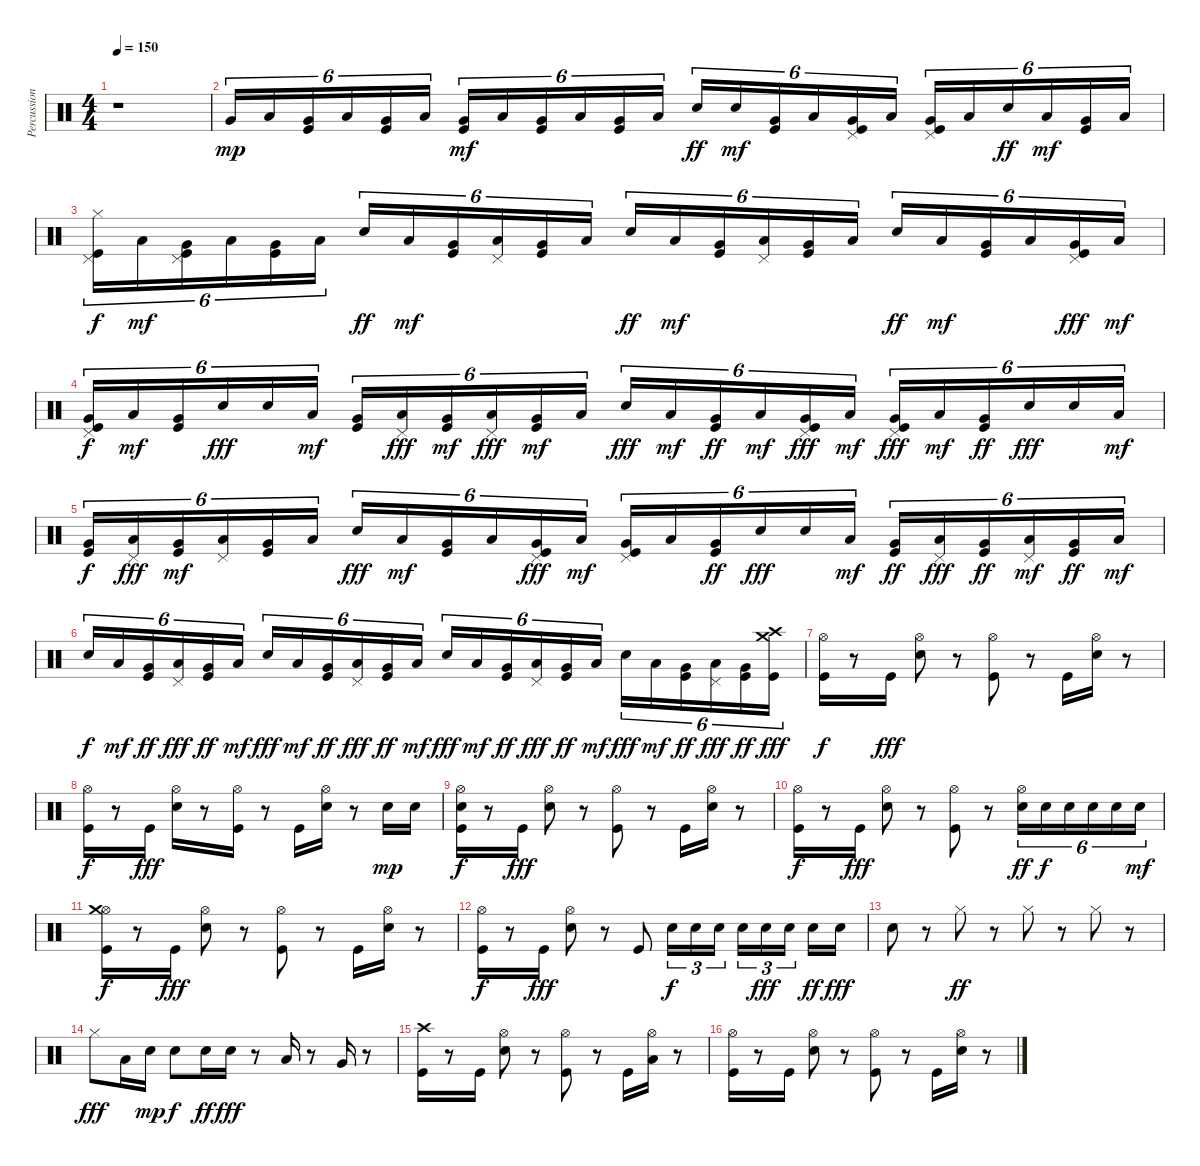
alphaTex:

\track ("Percussion" "Percussion") {instrument percussion}
\staff {score}
\articulation defaults
\ts (4 4)
\tempo 150
\clef neutral
\ks c
r.1{dy mp} |
"Very Low Tom (hit)".16{tu (6 4)} "Low Floor Tom (hit)".16{tu (6 4)} ("Kick (hit)" "Very Low Tom (hit)").16{tu (6 4)} "Low Floor Tom (hit)".16{tu (6 4)} ("Kick (hit)" "Very Low Tom (hit)").16{tu (6 4)} "Low Floor Tom (hit)".16{tu (6 4)} ("Very Low Tom (hit)" "Kick (hit)").16{tu (6 4) dy mf} "Low Floor Tom (hit)".16{tu (6 4)} ("Kick (hit)" "Very Low Tom (hit)").16{tu (6 4)} "Low Floor Tom (hit)".16{tu (6 4)} ("Kick (hit)" "Very Low Tom (hit)").16{tu (6 4)} "Low Floor Tom (hit)".16{tu (6 4)} "Electric Snare (hit)".16{tu (6 4) dy ff} "Electric Snare (hit)".16{tu (6 4) dy mf} ("Kick (hit)" "Very Low Tom (hit)").16{tu (6 4)} "Low Floor Tom (hit)".16{tu (6 4)} ("Pedal Hi-Hat (hit)" "Very Low Tom (hit)" "Kick (hit)").16{tu (6 4)} "Low Floor Tom (hit)".16{tu (6 4)} ("Pedal Hi-Hat (hit)" "Kick (hit)" "Very Low Tom (hit)").16{tu (6 4)} "Low Floor Tom (hit)".16{tu (6 4)} "Electric Snare (hit)".16{tu (6 4) dy ff} "Low Floor Tom (hit)".16{tu (6 4) dy mf} ("Kick (hit)" "Very Low Tom (hit)").16{tu (6 4)} "Low Floor Tom (hit)".16{tu (6 4)} |
("Pedal Hi-Hat (hit)" "Kick (hit)" "Hi-Hat (closed)").16{tu (6 4) dy f} "Low Floor Tom (hit)".16{tu (6 4) dy mf} ("Pedal Hi-Hat (hit)" "Kick (hit)" "Very Low Tom (hit)").16{tu (6 4)} "Low Floor Tom (hit)".16{tu (6 4)} ("Kick (hit)" "Very Low Tom (hit)").16{tu (6 4)} "Low Floor Tom (hit)".16{tu (6 4)} "Electric Snare (hit)".16{tu (6 4) dy ff} "Low Floor Tom (hit)".16{tu (6 4) dy mf} ("Kick (hit)" "Very Low Tom (hit)").16{tu (6 4)} ("Pedal Hi-Hat (hit)" "Low Floor Tom (hit)").16{tu (6 4)} ("Kick (hit)" "Very Low Tom (hit)").16{tu (6 4)} "Low Floor Tom (hit)".16{tu (6 4)} "Electric Snare (hit)".16{tu (6 4) dy ff} "Low Floor Tom (hit)".16{tu (6 4) dy mf} ("Kick (hit)" "Very Low Tom (hit)").16{tu (6 4)} ("Pedal Hi-Hat (hit)" "Low Floor Tom (hit)").16{tu (6 4)} ("Kick (hit)" "Very Low Tom (hit)").16{tu (6 4)} "Low Floor Tom (hit)".16{tu (6 4)} "Electric Snare (hit)".16{tu (6 4) dy ff} "Low Floor Tom (hit)".16{tu (6 4) dy mf} ("Kick (hit)" "Very Low Tom (hit)").16{tu (6 4)} "Low Floor Tom (hit)".16{tu (6 4)} ("Kick (hit)" "Very Low Tom (hit)" "Pedal Hi-Hat (hit)").16{tu (6 4) dy fff} "Low Floor Tom (hit)".16{tu (6 4) dy mf} |
("Kick (hit)" "Very Low Tom (hit)" "Pedal Hi-Hat (hit)").16{tu (6 4) dy f} "Low Floor Tom (hit)".16{tu (6 4) dy mf} ("Kick (hit)" "Very Low Tom (hit)").16{tu (6 4)} "Electric Snare (hit)".16{tu (6 4) dy fff} "Electric Snare (hit)".16{tu (6 4)} "Low Floor Tom (hit)".16{tu (6 4) dy mf} ("Kick (hit)" "Very Low Tom (hit)").16{tu (6 4)} ("Low Floor Tom (hit)" "Pedal Hi-Hat (hit)").16{tu (6 4) dy fff} ("Kick (hit)" "Very Low Tom (hit)").16{tu (6 4) dy mf} ("Low Floor Tom (hit)" "Pedal Hi-Hat (hit)").16{tu (6 4) dy fff} ("Kick (hit)" "Very Low Tom (hit)").16{tu (6 4) dy mf} "Low Floor Tom (hit)".16{tu (6 4)} "Electric Snare (hit)".16{tu (6 4) dy fff} "Low Floor Tom (hit)".16{tu (6 4) dy mf} ("Very Low Tom (hit)" "Kick (hit)").16{tu (6 4) dy ff} "Low Floor Tom (hit)".16{tu (6 4) dy mf} ("Very Low Tom (hit)" "Kick (hit)" "Pedal Hi-Hat (hit)").16{tu (6 4) dy fff} "Low Floor Tom (hit)".16{tu (6 4) dy mf} ("Very Low Tom (hit)" "Kick (hit)" "Pedal Hi-Hat (hit)").16{tu (6 4) dy fff} "Low Floor Tom (hit)".16{tu (6 4) dy mf} ("Very Low Tom (hit)" "Kick (hit)").16{tu (6 4) dy ff} "Electric Snare (hit)".16{tu (6 4) dy fff} "Electric Snare (hit)".16{tu (6 4)} "Low Floor Tom (hit)".16{tu (6 4) dy mf} |
("Kick (hit)" "Very Low Tom (hit)").16{tu (6 4) dy f} ("Low Floor Tom (hit)" "Pedal Hi-Hat (hit)").16{tu (6 4) dy fff} ("Kick (hit)" "Very Low Tom (hit)").16{tu (6 4) dy mf} ("Pedal Hi-Hat (hit)" "Low Floor Tom (hit)").16{tu (6 4)} ("Kick (hit)" "Very Low Tom (hit)").16{tu (6 4)} "Low Floor Tom (hit)".16{tu (6 4)} "Electric Snare (hit)".16{tu (6 4) dy fff} "Low Floor Tom (hit)".16{tu (6 4) dy mf} ("Kick (hit)" "Very Low Tom (hit)").16{tu (6 4)} "Low Floor Tom (hit)".16{tu (6 4)} ("Kick (hit)" "Very Low Tom (hit)" "Pedal Hi-Hat (hit)").16{tu (6 4) dy fff} "Low Floor Tom (hit)".16{tu (6 4) dy mf} ("Pedal Hi-Hat (hit)" "Kick (hit)" "Very Low Tom (hit)").16{tu (6 4)} "Low Floor Tom (hit)".16{tu (6 4)} ("Very Low Tom (hit)" "Kick (hit)").16{tu (6 4) dy ff} "Electric Snare (hit)".16{tu (6 4) dy fff} "Electric Snare (hit)".16{tu (6 4)} "Low Floor Tom (hit)".16{tu (6 4) dy mf} ("Very Low Tom (hit)" "Kick (hit)").16{tu (6 4) dy ff} ("Low Floor Tom (hit)" "Pedal Hi-Hat (hit)").16{tu (6 4) dy fff} ("Very Low Tom (hit)" "Kick (hit)").16{tu (6 4) dy ff} ("Pedal Hi-Hat (hit)" "Low Floor Tom (hit)").16{tu (6 4) dy mf} ("Very Low Tom (hit)" "Kick (hit)").16{tu (6 4) dy ff} "Low Floor Tom (hit)".16{tu (6 4) dy mf} |
"Electric Snare (hit)".16{tu (6 4) dy f} "Low Floor Tom (hit)".16{tu (6 4) dy mf} ("Very Low Tom (hit)" "Kick (hit)").16{tu (6 4) dy ff} ("Low Floor Tom (hit)" "Pedal Hi-Hat (hit)").16{tu (6 4) dy fff} ("Very Low Tom (hit)" "Kick (hit)").16{tu (6 4) dy ff} "Low Floor Tom (hit)".16{tu (6 4) dy mf} "Electric Snare (hit)".16{tu (6 4) dy fff} "Low Floor Tom (hit)".16{tu (6 4) dy mf} ("Very Low Tom (hit)" "Kick (hit)").16{tu (6 4) dy ff} ("Low Floor Tom (hit)" "Pedal Hi-Hat (hit)").16{tu (6 4) dy fff} ("Very Low Tom (hit)" "Kick (hit)").16{tu (6 4) dy ff} "Low Floor Tom (hit)".16{tu (6 4) dy mf} "Electric Snare (hit)".16{tu (6 4) dy fff} "Low Floor Tom (hit)".16{tu (6 4) dy mf} ("Very Low Tom (hit)" "Kick (hit)").16{tu (6 4) dy ff} ("Low Floor Tom (hit)" "Pedal Hi-Hat (hit)").16{tu (6 4) dy fff} ("Very Low Tom (hit)" "Kick (hit)").16{tu (6 4) dy ff} "Low Floor Tom (hit)".16{tu (6 4) dy mf} "Electric Snare (hit)".16{tu (6 4) dy fff} "Low Floor Tom (hit)".16{tu (6 4) dy mf} ("Very Low Tom (hit)" "Kick (hit)").16{tu (6 4) dy ff} ("Low Floor Tom (hit)" "Pedal Hi-Hat (hit)").16{tu (6 4) dy fff} ("Very Low Tom (hit)" "Kick (hit)").16{tu (6 4) dy ff} ("Kick (hit)" "Crash high (hit)" "Crash medium (hit)").16{tu (6 4) dy fff} |
("Kick (hit)" "Hi-Hat (open)").16{dy f} r.8 "Kick (hit)".16{dy fff} ("Electric Snare (hit)" "Hi-Hat (open)").8 r.8 ("Kick (hit)" "Hi-Hat (open)").8 r.8 "Kick (hit)".16 ("Electric Snare (hit)" "Hi-Hat (open)").16 r.8 |
("Kick (hit)" "Hi-Hat (open)").16{dy f} r.8 "Kick (hit)".16{dy fff} ("Hi-Hat (open)" "Electric Snare (hit)").16 r.8 ("Hi-Hat (open)" "Kick (hit)").16 r.8 "Kick (hit)".16 ("Hi-Hat (open)" "Electric Snare (hit)").16 r.8 "Electric Snare (hit)".16{dy mp} "Electric Snare (hit)".16 |
("Kick (hit)" "Electric Snare (hit)" "Hi-Hat (open)").16{dy f} r.8 "Kick (hit)".16{dy fff} ("Electric Snare (hit)" "Hi-Hat (open)").8 r.8 ("Kick (hit)" "Hi-Hat (open)").8 r.8 "Kick (hit)".16 ("Hi-Hat (open)" "Electric Snare (hit)").16 r.8 |
("Kick (hit)" "Hi-Hat (open)").16{dy f} r.8 "Kick (hit)".16{dy fff} ("Hi-Hat (open)" "Electric Snare (hit)").8 r.8 ("Hi-Hat (open)" "Kick (hit)").8 r.8 ("Hi-Hat (open)" "Electric Snare (hit)").16{tu (6 4) dy ff} "Electric Snare (hit)".16{tu (6 4) dy f} "Electric Snare (hit)".16{tu (6 4)} "Electric Snare (hit)".16{tu (6 4)} "Electric Snare (hit)".16{tu (6 4)} "Electric Snare (hit)".16{tu (6 4) dy mf} |
("Kick (hit)" "Hi-Hat (open)" "Crash medium (hit)").16{dy f} r.8 "Kick (hit)".16{dy fff} ("Electric Snare (hit)" "Hi-Hat (open)").8 r.8 ("Kick (hit)" "Hi-Hat (open)").8 r.8 "Kick (hit)".16 ("Electric Snare (hit)" "Hi-Hat (open)").16 r.8 |
("Kick (hit)" "Hi-Hat (open)").16{dy f} r.8 "Kick (hit)".16{dy fff} ("Hi-Hat (open)" "Electric Snare (hit)").8 r.8 "Kick (hit)".8 "Electric Snare (hit)".16{tu (3 2) dy f} "Electric Snare (hit)".16{tu (3 2)} "Electric Snare (hit)".16{tu (3 2)} "Electric Snare (hit)".16{tu (3 2)} "Electric Snare (hit)".16{tu (3 2) dy fff} "Electric Snare (hit)".16{tu (3 2)} "Electric Snare (hit)".16{dy ff} "Electric Snare (hit)".16{dy fff} |
"Electric Snare (hit)".8 r.8 "Hi-Hat (closed)".8{dy ff} r.8 "Hi-Hat (closed)".8 r.8 "Hi-Hat (closed)".8 r.8 |
"Hi-Hat (closed)".8{dy fff} "Low Tom (hit)".16 "Electric Snare (hit)".16{dy mp} "Electric Snare (hit)".8{dy f} "Electric Snare (hit)".16{dy ff} "Electric Snare (hit)".16{dy fff} r.8 "Low Tom (hit)".16 r.8 "Very Low Tom (hit)".16 r.8 |
("Kick (hit)" "Crash high (hit)").16 r.8 "Kick (hit)".16 ("Electric Snare (hit)" "Hi-Hat (open)").8 r.8 ("Kick (hit)" "Hi-Hat (open)").8 r.8 "Kick (hit)".16 ("Hi-Hat (open)" "Low Tom (hit)").16 r.8 |
("Kick (hit)" "Hi-Hat (open)").16 r.8 "Kick (hit)".16 ("Electric Snare (hit)" "Hi-Hat (open)").8 r.8 ("Kick (hit)" "Hi-Hat (open)").8 r.8 "Kick (hit)".16 ("Electric Snare (hit)" "Hi-Hat (open)").16 r.8
